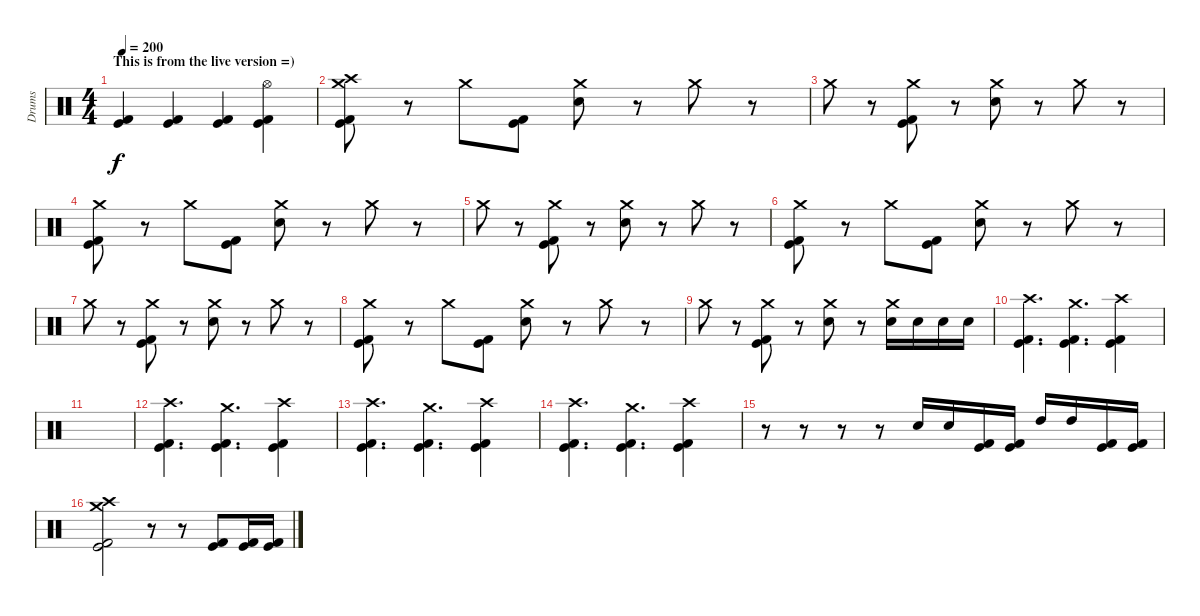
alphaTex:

\track ("Drums" "Drums") {instrument percussion}
\staff {score}
\articulation defaults
\ts (4 4)
\section ("" "This is from the live version =)")
\tempo 200
\clef neutral
\ks c
("Kick (hit) 2" "Kick (hit)").4{dy f} ("Kick (hit) 2" "Kick (hit)").4 ("Kick (hit) 2" "Kick (hit)").4 ("Hi-Hat (open)" "Kick (hit) 2" "Kick (hit)").4 |
("Crash medium (hit)" "Crash high (hit)" "Kick (hit) 2" "Kick (hit)").8 r.8 "Crash medium (hit)".8 ("Kick (hit) 2" "Kick (hit)").8 ("Crash medium (hit)" "Electric Snare (hit)").8 r.8 "Crash medium (hit)".8 r.8 |
"Crash medium (hit)".8 r.8 ("Crash medium (hit)" "Kick (hit) 2" "Kick (hit)").8 r.8 ("Crash medium (hit)" "Electric Snare (hit)").8 r.8 "Crash medium (hit)".8 r.8 |
("Crash medium (hit)" "Kick (hit) 2" "Kick (hit)").8 r.8 "Crash medium (hit)".8 ("Kick (hit) 2" "Kick (hit)").8 ("Crash medium (hit)" "Electric Snare (hit)").8 r.8 "Crash medium (hit)".8 r.8 |
"Crash medium (hit)".8 r.8 ("Crash medium (hit)" "Kick (hit) 2" "Kick (hit)").8 r.8 ("Crash medium (hit)" "Electric Snare (hit)").8 r.8 "Crash medium (hit)".8 r.8 |
("Crash medium (hit)" "Kick (hit) 2" "Kick (hit)").8 r.8 "Crash medium (hit)".8 ("Kick (hit) 2" "Kick (hit)").8 ("Crash medium (hit)" "Electric Snare (hit)").8 r.8 "Crash medium (hit)".8 r.8 |
"Crash medium (hit)".8 r.8 ("Crash medium (hit)" "Kick (hit) 2" "Kick (hit)").8 r.8 ("Crash medium (hit)" "Electric Snare (hit)").8 r.8 "Crash medium (hit)".8 r.8 |
("Crash medium (hit)" "Kick (hit) 2" "Kick (hit)").8 r.8 "Crash medium (hit)".8 ("Kick (hit) 2" "Kick (hit)").8 ("Crash medium (hit)" "Electric Snare (hit)").8 r.8 "Crash medium (hit)".8 r.8 |
"Crash medium (hit)".8 r.8 ("Crash medium (hit)" "Kick (hit) 2" "Kick (hit)").8 r.8 ("Crash medium (hit)" "Electric Snare (hit)").8 r.8 ("Crash medium (hit)" "Electric Snare (hit)").16 "Electric Snare (hit)".16 "Electric Snare (hit)".16 "Electric Snare (hit)".16 |
("Crash high (hit)" "Kick (hit) 2" "Kick (hit)").4{d} ("Crash medium (hit)" "Kick (hit) 2" "Kick (hit)").4{d} ("Crash high (hit)" "Kick (hit) 2" "Kick (hit)").4 |
|
("Crash high (hit)" "Kick (hit) 2" "Kick (hit)").4{d} ("Crash medium (hit)" "Kick (hit) 2" "Kick (hit)").4{d} ("Crash high (hit)" "Kick (hit) 2" "Kick (hit)").4 |
("Crash high (hit)" "Kick (hit) 2" "Kick (hit)").4{d} ("Crash medium (hit)" "Kick (hit) 2" "Kick (hit)").4{d} ("Crash high (hit)" "Kick (hit) 2" "Kick (hit)").4 |
("Crash high (hit)" "Kick (hit) 2" "Kick (hit)").4{d} ("Crash medium (hit)" "Kick (hit) 2" "Kick (hit)").4{d} ("Crash high (hit)" "Kick (hit) 2" "Kick (hit)").4 |
r.8 r.8 r.8 r.8 "Electric Snare (hit)".16 "Electric Snare (hit)".16 ("Kick (hit) 2" "Kick (hit)").16 ("Kick (hit) 2" "Kick (hit)").16 "High Tom (hit)".16 "High Tom (hit)".16 ("Kick (hit) 2" "Kick (hit)").16 ("Kick (hit) 2" "Kick (hit)").16 |
("Crash medium (hit)" "Crash high (hit)" "Kick (hit) 2" "Kick (hit)").2 r.8 r.8 ("Kick (hit) 2" "Kick (hit)").8 ("Kick (hit) 2" "Kick (hit)").16 ("Kick (hit) 2" "Kick (hit)").16
